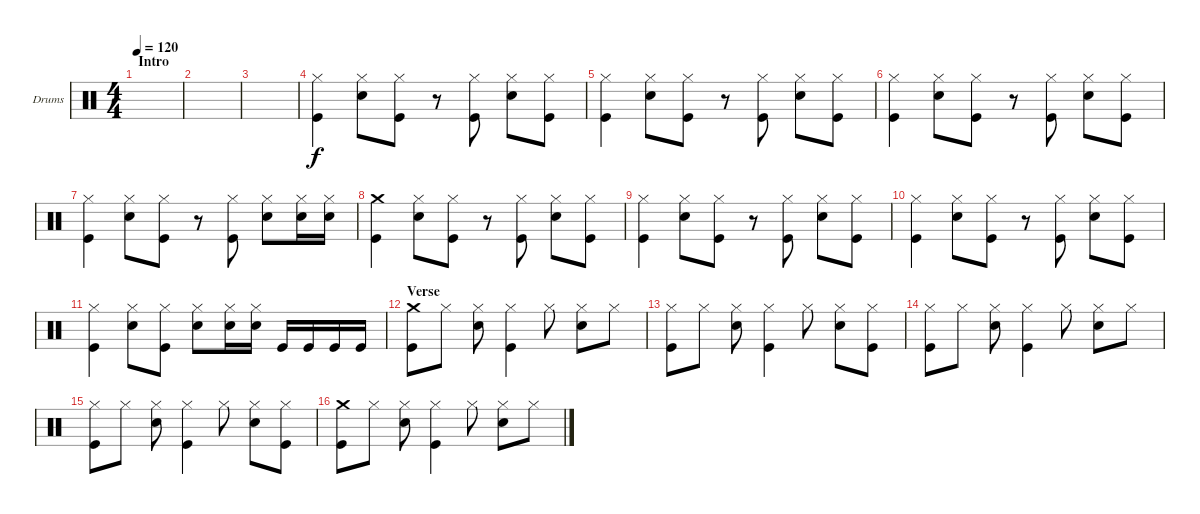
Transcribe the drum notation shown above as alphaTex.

\defaultSystemsLayout 4
\bracketExtendMode groupsimilarinstruments
\firstSystemTrackNameOrientation horizontal
\otherSystemsTrackNameOrientation horizontal
\track ("Drum" "Drums") {instrument percussion}
\staff {score}
\articulation defaults
\ts (4 4)
\section ("" "Intro")
\tempo 120
\clef neutral
\scale
0.474178
\ks c
|
\scale
0.262911 |
\scale
0.262911 |
\scale
0.333333 ("Hi-Hat (closed)" "Kick (hit)").4 ("Hi-Hat (closed)" "Snare (hit) 2").8 ("Hi-Hat (closed)" "Kick (hit)").8 r.8 ("Hi-Hat (closed)" "Kick (hit)").8 ("Hi-Hat (closed)" "Snare (hit) 2").8 ("Hi-Hat (closed)" "Kick (hit)").8 |
\scale
0.333333 ("Hi-Hat (closed)" "Kick (hit)").4 ("Hi-Hat (closed)" "Snare (hit) 2").8 ("Hi-Hat (closed)" "Kick (hit)").8 r.8 ("Hi-Hat (closed)" "Kick (hit)").8 ("Hi-Hat (closed)" "Snare (hit) 2").8 ("Hi-Hat (closed)" "Kick (hit)").8 |
\scale
0.333333 ("Hi-Hat (closed)" "Kick (hit)").4 ("Hi-Hat (closed)" "Snare (hit) 2").8 ("Hi-Hat (closed)" "Kick (hit)").8 r.8 ("Hi-Hat (closed)" "Kick (hit)").8 ("Hi-Hat (closed)" "Snare (hit) 2").8 ("Hi-Hat (closed)" "Kick (hit)").8 |
\scale
0.333333 ("Hi-Hat (closed)" "Kick (hit)").4 ("Hi-Hat (closed)" "Snare (hit) 2").8 ("Hi-Hat (closed)" "Kick (hit)").8 r.8 ("Hi-Hat (closed)" "Kick (hit)").8 ("Hi-Hat (closed)" "Snare (hit) 2").8 ("Hi-Hat (closed)" "Snare (hit) 2").16 ("Hi-Hat (closed)" "Snare (hit) 2").16 |
\scale
0.333333 ("Crash medium (hit)" "Kick (hit)").4 ("Hi-Hat (closed)" "Snare (hit) 2").8 ("Hi-Hat (closed)" "Kick (hit)").8 r.8 ("Hi-Hat (closed)" "Kick (hit)").8 ("Hi-Hat (closed)" "Snare (hit) 2").8 ("Hi-Hat (closed)" "Kick (hit)").8 |
\scale
0.333333 ("Hi-Hat (closed)" "Kick (hit)").4 ("Hi-Hat (closed)" "Snare (hit) 2").8 ("Hi-Hat (closed)" "Kick (hit)").8 r.8 ("Hi-Hat (closed)" "Kick (hit)").8 ("Hi-Hat (closed)" "Snare (hit) 2").8 ("Hi-Hat (closed)" "Kick (hit)").8 |
\scale
0.333333 ("Hi-Hat (closed)" "Kick (hit)").4 ("Hi-Hat (closed)" "Snare (hit) 2").8 ("Hi-Hat (closed)" "Kick (hit)").8 r.8 ("Hi-Hat (closed)" "Kick (hit)").8 ("Hi-Hat (closed)" "Snare (hit) 2").8 ("Hi-Hat (closed)" "Kick (hit)").8 |
\scale
0.333333 ("Hi-Hat (closed)" "Kick (hit)").4 ("Hi-Hat (closed)" "Snare (hit) 2").8 ("Hi-Hat (closed)" "Kick (hit)").8 ("Hi-Hat (closed)" "Snare (hit) 2").8 ("Hi-Hat (closed)" "Snare (hit) 2").16 ("Hi-Hat (closed)" "Snare (hit) 2").16 "Kick (hit)".16 "Kick (hit)".16 "Kick (hit)".16 "Kick (hit)".16 |
\section ("" "Verse")
\scale
0.333333 ("Crash medium (hit)" "Kick (hit)").8 "Hi-Hat (closed)".8 ("Hi-Hat (closed)" "Snare (hit) 2").8 ("Hi-Hat (closed)" "Kick (hit)").4 "Hi-Hat (closed)".8 ("Hi-Hat (closed)" "Snare (hit) 2").8 "Hi-Hat (closed)".8 |
\scale
0.333333 ("Hi-Hat (closed)" "Kick (hit)").8 "Hi-Hat (closed)".8 ("Hi-Hat (closed)" "Snare (hit) 2").8 ("Hi-Hat (closed)" "Kick (hit)").4 "Hi-Hat (closed)".8 ("Hi-Hat (closed)" "Snare (hit) 2").8 ("Hi-Hat (closed)" "Kick (hit)").8 |
\scale
0.333333 ("Hi-Hat (closed)" "Kick (hit)").8 "Hi-Hat (closed)".8 ("Hi-Hat (closed)" "Snare (hit) 2").8 ("Hi-Hat (closed)" "Kick (hit)").4 "Hi-Hat (closed)".8 ("Hi-Hat (closed)" "Snare (hit) 2").8 "Hi-Hat (closed)".8 |
\scale
0.333333 ("Hi-Hat (closed)" "Kick (hit)").8 "Hi-Hat (closed)".8 ("Hi-Hat (closed)" "Snare (hit) 2").8 ("Hi-Hat (closed)" "Kick (hit)").4 "Hi-Hat (closed)".8 ("Hi-Hat (closed)" "Snare (hit) 2").8 ("Hi-Hat (closed)" "Kick (hit)").8 |
\scale
0.333333 ("Crash medium (hit)" "Kick (hit)").8 "Hi-Hat (closed)".8 ("Hi-Hat (closed)" "Snare (hit) 2").8 ("Hi-Hat (closed)" "Kick (hit)").4 "Hi-Hat (closed)".8 ("Hi-Hat (closed)" "Snare (hit) 2").8 "Hi-Hat (closed)".8
